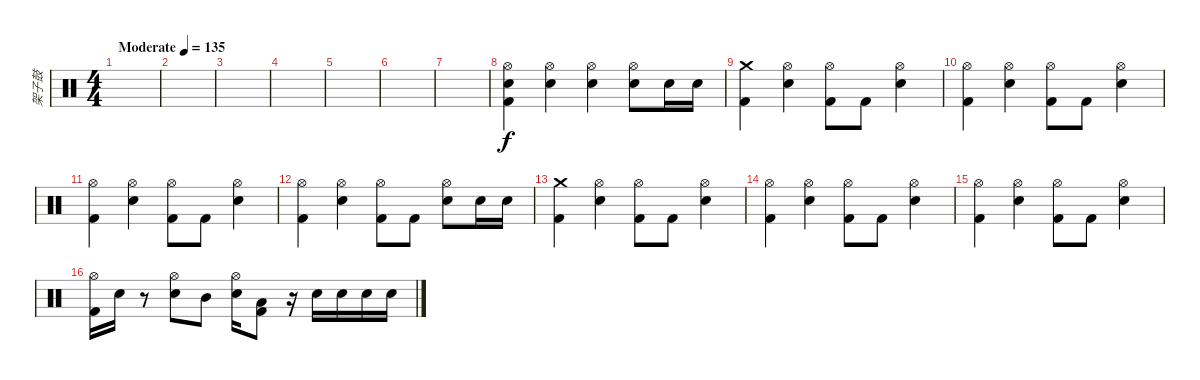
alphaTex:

\track ("架子鼓" "架子鼓") {instrument percussion}
\staff {score}
\articulation defaults
\ts (4 4)
\tempo (135 "Moderate")
\clef neutral
\ks c
|
|
|
|
|
|
|
("Hi-Hat (open)" "Electric Snare (hit)" "Kick (hit) 2").4 ("Hi-Hat (open)" "Electric Snare (hit)").4 ("Hi-Hat (open)" "Electric Snare (hit)").4 ("Hi-Hat (open)" "Electric Snare (hit)").8 "Electric Snare (hit)".16 "Electric Snare (hit)".16 |
("Crash medium (hit)" "Kick (hit) 2").4 ("Hi-Hat (open)" "Electric Snare (hit)").4 ("Hi-Hat (open)" "Kick (hit) 2").8 "Kick (hit) 2".8 ("Hi-Hat (open)" "Electric Snare (hit)").4 |
("Hi-Hat (open)" "Kick (hit) 2").4 ("Hi-Hat (open)" "Electric Snare (hit)").4 ("Hi-Hat (open)" "Kick (hit) 2").8 "Kick (hit) 2".8 ("Hi-Hat (open)" "Electric Snare (hit)").4 |
("Hi-Hat (open)" "Kick (hit) 2").4 ("Hi-Hat (open)" "Electric Snare (hit)").4 ("Hi-Hat (open)" "Kick (hit) 2").8 "Kick (hit) 2".8 ("Hi-Hat (open)" "Electric Snare (hit)").4 |
("Hi-Hat (open)" "Kick (hit) 2").4 ("Hi-Hat (open)" "Electric Snare (hit)").4 ("Hi-Hat (open)" "Kick (hit) 2").8 "Kick (hit) 2".8 ("Hi-Hat (open)" "Electric Snare (hit)").8 "Electric Snare (hit)".16 "Electric Snare (hit)".16 |
("Crash medium (hit)" "Kick (hit) 2").4 ("Hi-Hat (open)" "Electric Snare (hit)").4 ("Hi-Hat (open)" "Kick (hit) 2").8 "Kick (hit) 2".8 ("Hi-Hat (open)" "Electric Snare (hit)").4 |
("Hi-Hat (open)" "Kick (hit) 2").4 ("Hi-Hat (open)" "Electric Snare (hit)").4 ("Hi-Hat (open)" "Kick (hit) 2").8 "Kick (hit) 2".8 ("Hi-Hat (open)" "Electric Snare (hit)").4 |
("Hi-Hat (open)" "Kick (hit) 2").4 ("Hi-Hat (open)" "Electric Snare (hit)").4 ("Hi-Hat (open)" "Kick (hit) 2").8 "Kick (hit) 2".8 ("Hi-Hat (open)" "Electric Snare (hit)").4 |
("Hi-Hat (open)" "Kick (hit) 2").16 "Electric Snare (hit)".16 r.8 ("Hi-Hat (open)" "Electric Snare (hit)").8 "Mid Tom (hit)".8 ("Hi-Hat (open)" "Electric Snare (hit)").16 ("Low Tom (hit)" "Kick (hit) 2").8 r.16 "Electric Snare (hit)".16 "Electric Snare (hit)".16 "Electric Snare (hit)".16 "Electric Snare (hit)".16
